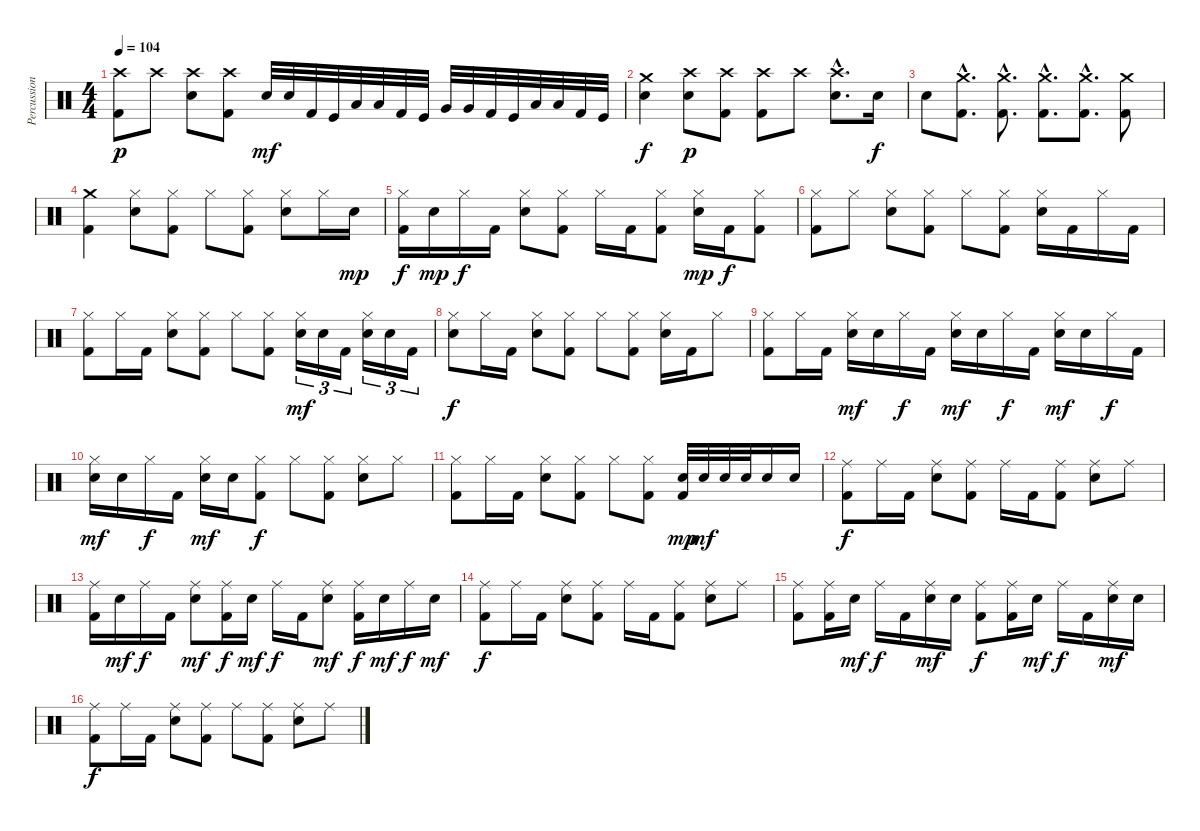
\track ("Percussion" "Percussion") {instrument percussion}
\staff {score}
\articulation defaults
\ts (4 4)
\tempo 104
\clef neutral
\ks c
("Kick (hit) 2" "Crash high (hit)").8{dy p} "Crash high (hit)".8 ("Electric Snare (hit)" "Crash high (hit)").8 ("Kick (hit) 2" "Crash high (hit)").8 "Electric Snare (hit)".32{dy mf} "Electric Snare (hit)".32 "Kick (hit) 2".32 "Kick (hit)".32 "Low Tom (hit)".32 "Low Tom (hit)".32 "Kick (hit) 2".32 "Kick (hit)".32 "Very Low Tom (hit)".32 "Very Low Tom (hit)".32 "Kick (hit) 2".32 "Kick (hit)".32 "Low Floor Tom (hit)".32 "Low Floor Tom (hit)".32 "Kick (hit) 2".32 "Kick (hit)".32 |
("Electric Snare (hit)" "Crash medium (hit)").4{dy f} ("Electric Snare (hit)" "Crash high (hit)").8{dy p} ("Kick (hit) 2" "Crash high (hit)").8 ("Kick (hit) 2" "Crash high (hit)").8 "Crash high (hit)".8 ("Electric Snare (hit)"{hac} "Crash high (hit)").8{d} "Electric Snare (hit)".16{dy f} |
"Electric Snare (hit)".8 ("Kick (hit) 2"{hac} "Crash medium (hit)"{hac}).8{d} ("Kick (hit) 2"{hac} "Crash medium (hit)"{hac}).8{d} ("Kick (hit) 2"{hac} "Crash medium (hit)"{hac}).8{d} ("Kick (hit) 2"{hac} "Crash medium (hit)"{hac}).8{d} ("Kick (hit) 2" "Crash medium (hit)").8 |
("Kick (hit) 2" "Crash medium (hit)").4 ("Electric Snare (hit)" "Hi-Hat (closed)").8 ("Kick (hit) 2" "Hi-Hat (closed)").8 "Hi-Hat (closed)".8 ("Kick (hit) 2" "Hi-Hat (closed)").8 ("Electric Snare (hit)" "Hi-Hat (closed)").8 "Hi-Hat (closed)".16 "Electric Snare (hit)".16{dy mp} |
("Kick (hit) 2" "Hi-Hat (closed)").16{dy f} "Electric Snare (hit)".16{dy mp} "Hi-Hat (closed)".16{dy f} "Kick (hit) 2".16 ("Electric Snare (hit)" "Hi-Hat (closed)").8 ("Kick (hit) 2" "Hi-Hat (closed)").8 "Hi-Hat (closed)".16 "Kick (hit) 2".16 ("Kick (hit) 2" "Hi-Hat (closed)").8 ("Electric Snare (hit)" "Hi-Hat (closed)").16{dy mp} "Kick (hit) 2".16{dy f} ("Kick (hit) 2" "Hi-Hat (closed)").8 |
("Kick (hit) 2" "Hi-Hat (closed)").8 "Hi-Hat (closed)".8 ("Electric Snare (hit)" "Hi-Hat (closed)").8 ("Kick (hit) 2" "Hi-Hat (closed)").8 "Hi-Hat (closed)".8 ("Kick (hit) 2" "Hi-Hat (closed)").8 ("Electric Snare (hit)" "Hi-Hat (closed)").16 "Kick (hit) 2".16 "Hi-Hat (closed)".16 "Kick (hit) 2".16 |
("Kick (hit) 2" "Hi-Hat (closed)").8 "Hi-Hat (closed)".16 "Kick (hit) 2".16 ("Electric Snare (hit)" "Hi-Hat (closed)").8 ("Kick (hit) 2" "Hi-Hat (closed)").8 "Hi-Hat (closed)".8 ("Kick (hit) 2" "Hi-Hat (closed)").8 ("Electric Snare (hit)" "Hi-Hat (closed)").16{tu (3 2) dy mf} "Electric Snare (hit)".16{tu (3 2)} "Kick (hit) 2".16{tu (3 2)} ("Electric Snare (hit)" "Hi-Hat (closed)").16{tu (3 2)} "Electric Snare (hit)".16{tu (3 2)} "Kick (hit) 2".16{tu (3 2)} |
("Electric Snare (hit)" "Hi-Hat (closed)").8{dy f} "Hi-Hat (closed)".16 "Kick (hit) 2".16 ("Electric Snare (hit)" "Hi-Hat (closed)").8 ("Kick (hit) 2" "Hi-Hat (closed)").8 "Hi-Hat (closed)".8 ("Kick (hit) 2" "Hi-Hat (closed)").8 ("Electric Snare (hit)" "Hi-Hat (closed)").16 "Kick (hit) 2".16 "Hi-Hat (closed)".8 |
("Kick (hit) 2" "Hi-Hat (closed)").8 "Hi-Hat (closed)".16 "Kick (hit) 2".16 ("Electric Snare (hit)" "Hi-Hat (closed)").16{dy mf} "Electric Snare (hit)".16 "Hi-Hat (closed)".16{dy f} "Kick (hit) 2".16 ("Electric Snare (hit)" "Hi-Hat (closed)").16{dy mf} "Electric Snare (hit)".16 "Hi-Hat (closed)".16{dy f} "Kick (hit) 2".16 ("Electric Snare (hit)" "Hi-Hat (closed)").16{dy mf} "Electric Snare (hit)".16 "Hi-Hat (closed)".16{dy f} "Kick (hit) 2".16 |
("Electric Snare (hit)" "Hi-Hat (closed)").16{dy mf} "Electric Snare (hit)".16 "Hi-Hat (closed)".16{dy f} "Kick (hit) 2".16 ("Electric Snare (hit)" "Hi-Hat (closed)").16{dy mf} "Electric Snare (hit)".16 ("Kick (hit) 2" "Hi-Hat (closed)").8{dy f} "Hi-Hat (closed)".8 ("Kick (hit) 2" "Hi-Hat (closed)").8 ("Electric Snare (hit)" "Hi-Hat (closed)").8 "Hi-Hat (closed)".8 |
("Kick (hit) 2" "Hi-Hat (closed)").8 "Hi-Hat (closed)".16 "Kick (hit) 2".16 ("Electric Snare (hit)" "Hi-Hat (closed)").8 ("Kick (hit) 2" "Hi-Hat (closed)").8 "Hi-Hat (closed)".8 ("Kick (hit) 2" "Hi-Hat (closed)").8 ("Kick (hit) 2" "Electric Snare (hit)").32{dy mp} "Electric Snare (hit)".32{dy mf} "Electric Snare (hit)".32 "Electric Snare (hit)".32 "Electric Snare (hit)".16 "Electric Snare (hit)".16 |
("Kick (hit) 2" "Ride (middle)").8{dy f} "Ride (middle)".16 "Kick (hit) 2".16 ("Electric Snare (hit)" "Ride (middle)").8 ("Kick (hit) 2" "Ride (middle)").8 "Ride (middle)".16 "Kick (hit) 2".16 ("Kick (hit) 2" "Ride (middle)").8 ("Electric Snare (hit)" "Ride (middle)").8 "Ride (middle)".8 |
("Kick (hit) 2" "Ride (middle)").16 "Electric Snare (hit)".16{dy mf} "Ride (middle)".16{dy f} "Kick (hit) 2".16 ("Electric Snare (hit)" "Ride (middle)").8{dy mf} ("Kick (hit) 2" "Ride (middle)").16{dy f} "Electric Snare (hit)".16{dy mf} "Ride (middle)".16{dy f} "Kick (hit) 2".16 ("Electric Snare (hit)" "Ride (middle)").8{dy mf} ("Kick (hit) 2" "Ride (middle)").16{dy f} "Electric Snare (hit)".16{dy mf} "Ride (middle)".16{dy f} "Electric Snare (hit)".16{dy mf} |
("Kick (hit) 2" "Ride (middle)").8{dy f} "Ride (middle)".16 "Kick (hit) 2".16 ("Electric Snare (hit)" "Ride (middle)").8 ("Kick (hit) 2" "Ride (middle)").8 "Ride (middle)".16 "Kick (hit) 2".16 ("Kick (hit) 2" "Ride (middle)").8 ("Electric Snare (hit)" "Ride (middle)").8 "Ride (middle)".8 |
("Kick (hit) 2" "Ride (middle)").8 ("Kick (hit) 2" "Ride (middle)").16 "Electric Snare (hit)".16{dy mf} "Ride (middle)".16{dy f} "Kick (hit) 2".16 ("Electric Snare (hit)" "Ride (middle)").16{dy mf} "Electric Snare (hit)".16 ("Kick (hit) 2" "Ride (middle)").8{dy f} ("Kick (hit) 2" "Ride (middle)").16 "Electric Snare (hit)".16{dy mf} "Ride (middle)".16{dy f} "Kick (hit) 2".16 ("Electric Snare (hit)" "Ride (middle)").16{dy mf} "Electric Snare (hit)".16 |
("Kick (hit) 2" "Ride (middle)").8{dy f} "Ride (middle)".16 "Kick (hit) 2".16 ("Electric Snare (hit)" "Ride (middle)").8 ("Kick (hit) 2" "Ride (middle)").8 "Ride (middle)".8 ("Kick (hit) 2" "Ride (middle)").8 ("Electric Snare (hit)" "Ride (middle)").8 "Ride (middle)".8
